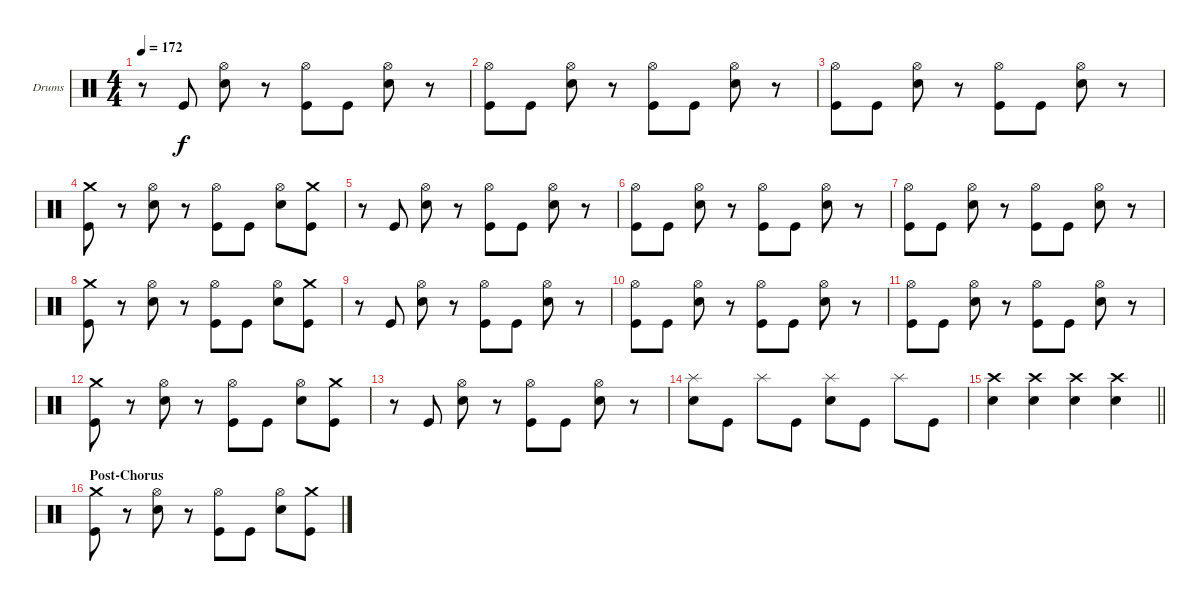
\bracketExtendMode groupsimilarinstruments
\firstSystemTrackNameOrientation horizontal
\otherSystemsTrackNameOrientation horizontal
\track ("Drumkit" "Drums") {instrument percussion}
\staff {score}
\articulation defaults
\ts (4 4)
\tempo 172
\clef neutral
\ks c
r.8{dy f} "Kick (hit)".8 ("Hi-Hat (open)" "Snare (hit) 2").8 r.8 ("Hi-Hat (open)" "Kick (hit)").8 "Kick (hit)".8 ("Hi-Hat (open)" "Snare (hit) 2").8 r.8 |
("Hi-Hat (open)" "Kick (hit)").8 "Kick (hit)".8 ("Hi-Hat (open)" "Snare (hit) 2").8 r.8 ("Hi-Hat (open)" "Kick (hit)").8 "Kick (hit)".8 ("Hi-Hat (open)" "Snare (hit) 2").8 r.8 |
("Hi-Hat (open)" "Kick (hit)").8 "Kick (hit)".8 ("Hi-Hat (open)" "Snare (hit) 2").8 r.8 ("Hi-Hat (open)" "Kick (hit)").8 "Kick (hit)".8 ("Hi-Hat (open)" "Snare (hit) 2").8 r.8 |
("Crash medium (hit)" "Kick (hit)").8 r.8 ("Hi-Hat (open)" "Snare (hit) 2").8 r.8 ("Hi-Hat (open)" "Kick (hit)").8 "Kick (hit)".8 ("Hi-Hat (open)" "Snare (hit) 2").8 ("Crash medium (hit)" "Kick (hit)").8 |
r.8 "Kick (hit)".8 ("Hi-Hat (open)" "Snare (hit) 2").8 r.8 ("Hi-Hat (open)" "Kick (hit)").8 "Kick (hit)".8 ("Hi-Hat (open)" "Snare (hit) 2").8 r.8 |
("Hi-Hat (open)" "Kick (hit)").8 "Kick (hit)".8 ("Hi-Hat (open)" "Snare (hit) 2").8 r.8 ("Hi-Hat (open)" "Kick (hit)").8 "Kick (hit)".8 ("Hi-Hat (open)" "Snare (hit) 2").8 r.8 |
("Hi-Hat (open)" "Kick (hit)").8 "Kick (hit)".8 ("Hi-Hat (open)" "Snare (hit) 2").8 r.8 ("Hi-Hat (open)" "Kick (hit)").8 "Kick (hit)".8 ("Hi-Hat (open)" "Snare (hit) 2").8 r.8 |
("Crash medium (hit)" "Kick (hit)").8 r.8 ("Hi-Hat (open)" "Snare (hit) 2").8 r.8 ("Hi-Hat (open)" "Kick (hit)").8 "Kick (hit)".8 ("Hi-Hat (open)" "Snare (hit) 2").8 ("Crash medium (hit)" "Kick (hit)").8 |
r.8 "Kick (hit)".8 ("Hi-Hat (open)" "Snare (hit) 2").8 r.8 ("Hi-Hat (open)" "Kick (hit)").8 "Kick (hit)".8 ("Hi-Hat (open)" "Snare (hit) 2").8 r.8 |
("Hi-Hat (open)" "Kick (hit)").8 "Kick (hit)".8 ("Hi-Hat (open)" "Snare (hit) 2").8 r.8 ("Hi-Hat (open)" "Kick (hit)").8 "Kick (hit)".8 ("Hi-Hat (open)" "Snare (hit) 2").8 r.8 |
("Hi-Hat (open)" "Kick (hit)").8 "Kick (hit)".8 ("Hi-Hat (open)" "Snare (hit) 2").8 r.8 ("Hi-Hat (open)" "Kick (hit)").8 "Kick (hit)".8 ("Hi-Hat (open)" "Snare (hit) 2").8 r.8 |
("Crash medium (hit)" "Kick (hit)").8 r.8 ("Hi-Hat (open)" "Snare (hit) 2").8 r.8 ("Hi-Hat (open)" "Kick (hit)").8 "Kick (hit)".8 ("Hi-Hat (open)" "Snare (hit) 2").8 ("Crash medium (hit)" "Kick (hit)").8 |
r.8 "Kick (hit)".8 ("Hi-Hat (open)" "Snare (hit) 2").8 r.8 ("Hi-Hat (open)" "Kick (hit)").8 "Kick (hit)".8 ("Hi-Hat (open)" "Snare (hit) 2").8 r.8 |
("Splash (hit)" "Snare (hit) 2").8 "Kick (hit)".8 "Splash (hit)".8 "Kick (hit)".8 ("Splash (hit)" "Snare (hit) 2").8 "Kick (hit)".8 "Splash (hit)".8 "Kick (hit)".8 |
\barLineRight lightlight
("Crash high (hit)" "Snare (hit) 2").4 ("Crash high (hit)" "Snare (hit) 2").4 ("Crash high (hit)" "Snare (hit) 2").4 ("Crash high (hit)" "Snare (hit) 2").4 |
\section ("" "Post-Chorus")
("Crash medium (hit)" "Kick (hit)").8 r.8 ("Hi-Hat (open)" "Snare (hit) 2").8 r.8 ("Hi-Hat (open)" "Kick (hit)").8 "Kick (hit)".8 ("Hi-Hat (open)" "Snare (hit) 2").8 ("Crash medium (hit)" "Kick (hit)").8
